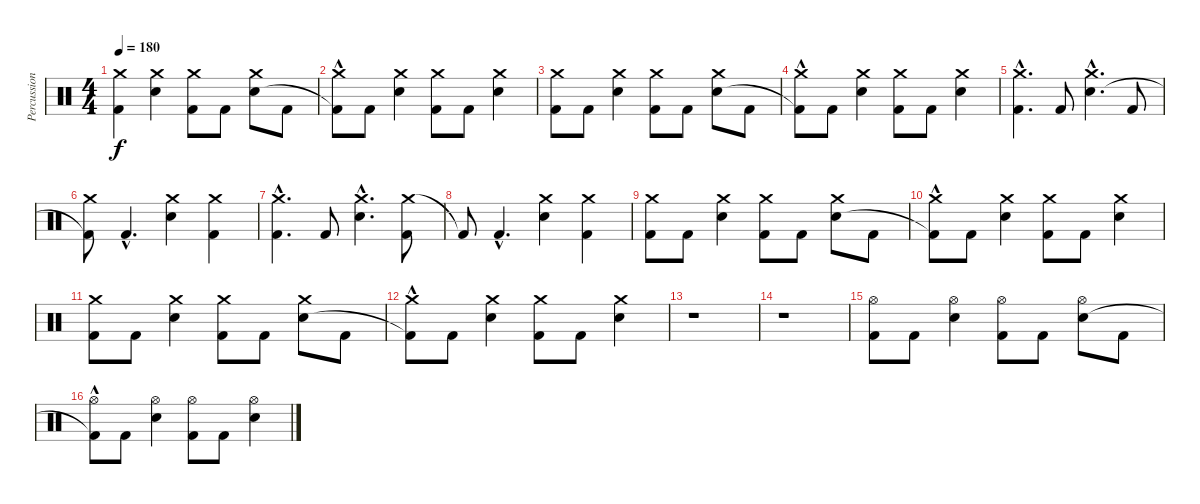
\track ("Percussion" "Percussion") {instrument percussion}
\staff {score}
\articulation defaults
\ts (4 4)
\tempo 180
\clef neutral
\ks c
("Crash medium (hit)" "Kick (hit) 2").4{dy f} ("Crash medium (hit)" "Electric Snare (hit)").4 ("Crash medium (hit)" "Kick (hit) 2").8 "Kick (hit) 2".8 ("Crash medium (hit)" "Electric Snare (hit)").8 "Kick (hit) 2".8 |
("Crash medium (hit)" "Kick (hit) 2"{hac t}).8 "Kick (hit) 2".8 ("Crash medium (hit)" "Electric Snare (hit)").4 ("Crash medium (hit)" "Kick (hit) 2").8 "Kick (hit) 2".8 ("Crash medium (hit)" "Electric Snare (hit)").4 |
("Crash medium (hit)" "Kick (hit) 2").8 "Kick (hit) 2".8 ("Crash medium (hit)" "Electric Snare (hit)").4 ("Crash medium (hit)" "Kick (hit) 2").8 "Kick (hit) 2".8 ("Crash medium (hit)" "Electric Snare (hit)").8 "Kick (hit) 2".8 |
("Crash medium (hit)" "Kick (hit) 2"{hac t}).8 "Kick (hit) 2".8 ("Crash medium (hit)" "Electric Snare (hit)").4 ("Crash medium (hit)" "Kick (hit) 2").8 "Kick (hit) 2".8 ("Crash medium (hit)" "Electric Snare (hit)").4 |
("Crash medium (hit)"{hac} "Kick (hit) 2"{hac}).4{d} "Kick (hit) 2".8 ("Crash medium (hit)"{hac} "Electric Snare (hit)"{hac}).4{d} "Kick (hit) 2".8 |
("Crash medium (hit)" "Kick (hit) 2"{t}).8 "Kick (hit) 2"{hac}.4{d} ("Crash medium (hit)" "Electric Snare (hit)").4 ("Crash medium (hit)" "Kick (hit) 2").4 |
("Crash medium (hit)"{hac} "Kick (hit) 2"{hac}).4{d} "Kick (hit) 2".8 ("Crash medium (hit)"{hac} "Electric Snare (hit)"{hac}).4{d} ("Crash medium (hit)" "Kick (hit) 2").8 |
"Kick (hit) 2"{t}.8 "Kick (hit) 2"{hac}.4{d} ("Crash medium (hit)" "Electric Snare (hit)").4 ("Crash medium (hit)" "Kick (hit) 2").4 |
("Crash medium (hit)" "Kick (hit) 2").8 "Kick (hit) 2".8 ("Crash medium (hit)" "Electric Snare (hit)").4 ("Crash medium (hit)" "Kick (hit) 2").8 "Kick (hit) 2".8 ("Crash medium (hit)" "Electric Snare (hit)").8 "Kick (hit) 2".8 |
("Crash medium (hit)" "Kick (hit) 2"{hac t}).8 "Kick (hit) 2".8 ("Crash medium (hit)" "Electric Snare (hit)").4 ("Crash medium (hit)" "Kick (hit) 2").8 "Kick (hit) 2".8 ("Crash medium (hit)" "Electric Snare (hit)").4 |
("Crash medium (hit)" "Kick (hit) 2").8 "Kick (hit) 2".8 ("Crash medium (hit)" "Electric Snare (hit)").4 ("Crash medium (hit)" "Kick (hit) 2").8 "Kick (hit) 2".8 ("Crash medium (hit)" "Electric Snare (hit)").8 "Kick (hit) 2".8 |
("Crash medium (hit)" "Kick (hit) 2"{hac t}).8 "Kick (hit) 2".8 ("Crash medium (hit)" "Electric Snare (hit)").4 ("Crash medium (hit)" "Kick (hit) 2").8 "Kick (hit) 2".8 ("Crash medium (hit)" "Electric Snare (hit)").4 |
r.1 |
r.1 |
("Hi-Hat (open)" "Kick (hit) 2").8 "Kick (hit) 2".8 ("Hi-Hat (open)" "Electric Snare (hit)").4 ("Hi-Hat (open)" "Kick (hit) 2").8 "Kick (hit) 2".8 ("Hi-Hat (open)" "Electric Snare (hit)").8 "Kick (hit) 2".8 |
("Hi-Hat (open)" "Kick (hit) 2"{hac t}).8 "Kick (hit) 2".8 ("Hi-Hat (open)" "Electric Snare (hit)").4 ("Hi-Hat (open)" "Kick (hit) 2").8 "Kick (hit) 2".8 ("Hi-Hat (open)" "Electric Snare (hit)").4
